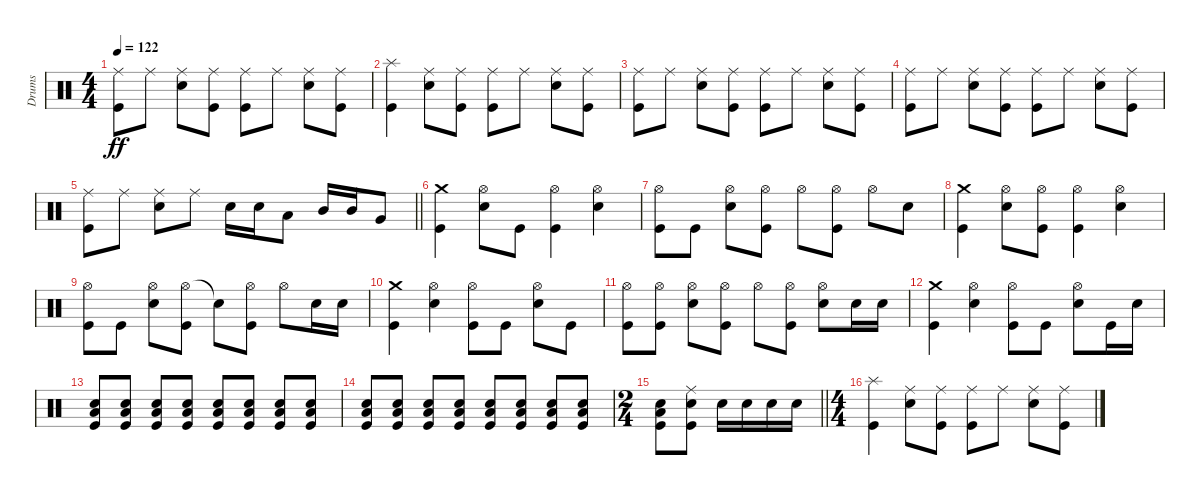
\track ("Drums" "Drums") {instrument percussion}
\staff {score}
\articulation defaults
\ts (4 4)
\tempo 122
\clef neutral
\ks c
("Ride (middle)" "Kick (hit)").8{dy ff} "Ride (middle)".8 ("Ride (middle)" "Snare (hit) 2").8 ("Ride (middle)" "Kick (hit)").8 ("Ride (middle)" "Kick (hit)").8 "Ride (middle)".8 ("Ride (middle)" "Snare (hit) 2").8 ("Ride (middle)" "Kick (hit)").8 |
("Splash (hit)" "Kick (hit)").4 ("Ride (middle)" "Snare (hit) 2").8 ("Ride (middle)" "Kick (hit)").8 ("Ride (middle)" "Kick (hit)").8 "Ride (middle)".8 ("Ride (middle)" "Snare (hit) 2").8 ("Ride (middle)" "Kick (hit)").8 |
("Ride (middle)" "Kick (hit)").8 "Ride (middle)".8 ("Ride (middle)" "Snare (hit) 2").8 ("Ride (middle)" "Kick (hit)").8 ("Ride (middle)" "Kick (hit)").8 "Ride (middle)".8 ("Ride (middle)" "Snare (hit) 2").8 ("Ride (middle)" "Kick (hit)").8 |
("Ride (middle)" "Kick (hit)").8 "Ride (middle)".8 ("Ride (middle)" "Snare (hit) 2").8 ("Ride (middle)" "Kick (hit)").8 ("Ride (middle)" "Kick (hit)").8 "Ride (middle)".8 ("Ride (middle)" "Snare (hit) 2").8 ("Ride (middle)" "Kick (hit)").8 |
\barLineRight lightlight
("Ride (middle)" "Kick (hit)").8 "Ride (middle)".8 ("Ride (middle)" "Snare (hit) 2").8 "Ride (middle)".8 "Snare (hit) 2".16 "Snare (hit) 2".16 "Low Tom (hit)".8 "Mid Tom (hit)".16 "Mid Tom (hit)".16 "Very Low Tom (hit)".8 |
("Crash medium (hit)" "Kick (hit)").4 ("Hi-Hat (open)" "Snare (hit) 2").8 "Kick (hit)".8 ("Hi-Hat (open)" "Kick (hit)").4 ("Hi-Hat (open)" "Snare (hit) 2").4 |
("Hi-Hat (open)" "Kick (hit)").8 "Kick (hit)".8 ("Hi-Hat (open)" "Snare (hit) 2").8 ("Hi-Hat (open)" "Kick (hit)").8 "Hi-Hat (open)".8 ("Hi-Hat (open)" "Kick (hit)").8 "Hi-Hat (open)".8 "Snare (hit) 2".8 |
("Crash medium (hit)" "Kick (hit)").4 ("Hi-Hat (open)" "Snare (hit) 2").8 ("Hi-Hat (open)" "Kick (hit)").8 ("Hi-Hat (open)" "Kick (hit)").4 ("Hi-Hat (open)" "Snare (hit) 2").4 |
("Hi-Hat (open)" "Kick (hit)").8 "Kick (hit)".8 ("Hi-Hat (open)" "Snare (hit) 2").8 ("Hi-Hat (open)" "Kick (hit)").8 "Snare (hit)"{t}.8 ("Hi-Hat (open)" "Kick (hit)").8 "Hi-Hat (open)".8 "Snare (hit) 2".16 "Snare (hit) 2".16 |
("Crash medium (hit)" "Kick (hit)").4 ("Hi-Hat (open)" "Snare (hit) 2").4 ("Hi-Hat (open)" "Kick (hit)").8 "Kick (hit)".8 ("Hi-Hat (open)" "Snare (hit) 2").8 "Kick (hit)".8 |
("Hi-Hat (open)" "Kick (hit)").8 ("Hi-Hat (open)" "Kick (hit)").8 ("Hi-Hat (open)" "Snare (hit) 2").8 ("Hi-Hat (open)" "Kick (hit)").8 "Hi-Hat (open)".8 ("Hi-Hat (open)" "Kick (hit)").8 ("Hi-Hat (open)" "Snare (hit) 2").8 "Snare (hit) 2".16 "Snare (hit) 2".16 |
("Crash medium (hit)" "Kick (hit)").4 ("Hi-Hat (open)" "Snare (hit) 2").4 ("Hi-Hat (open)" "Kick (hit)").8 "Kick (hit)".8 ("Hi-Hat (open)" "Snare (hit) 2").8 "Kick (hit)".16 "Snare (hit) 2".16 |
("Snare (hit) 2" "Low Floor Tom (hit)" "Kick (hit)").8{volume 8} ("Snare (hit) 2" "Low Floor Tom (hit)" "Kick (hit)").8{volume 13} ("Snare (hit) 2" "Low Floor Tom (hit)" "Kick (hit)").8 ("Snare (hit) 2" "Low Floor Tom (hit)" "Kick (hit)").8 ("Snare (hit) 2" "Low Floor Tom (hit)" "Kick (hit)").8 ("Snare (hit) 2" "Low Floor Tom (hit)" "Kick (hit)").8 ("Snare (hit) 2" "Low Floor Tom (hit)" "Kick (hit)").8 ("Snare (hit) 2" "Low Floor Tom (hit)" "Kick (hit)").8 |
("Snare (hit) 2" "Low Floor Tom (hit)" "Kick (hit)").8 ("Snare (hit) 2" "Low Floor Tom (hit)" "Kick (hit)").8 ("Snare (hit) 2" "Low Floor Tom (hit)" "Kick (hit)").8 ("Snare (hit) 2" "Low Floor Tom (hit)" "Kick (hit)").8 ("Snare (hit) 2" "Low Floor Tom (hit)" "Kick (hit)").8 ("Snare (hit) 2" "Low Floor Tom (hit)" "Kick (hit)").8 ("Snare (hit) 2" "Low Floor Tom (hit)" "Kick (hit)").8 ("Snare (hit) 2" "Low Floor Tom (hit)" "Kick (hit)").8 |
\ts (2 4)
\barLineRight lightlight
("Snare (hit) 2" "Low Floor Tom (hit)" "Kick (hit)").8 ("Snare (hit) 2" "Ride (middle)" "Kick (hit)").8 "Snare (hit) 2".16 "Snare (hit) 2".16 "Snare (hit) 2".16 "Snare (hit) 2".16 |
\ts (4 4)
("Splash (hit)" "Kick (hit)").4{volume 14} ("Ride (middle)" "Snare (hit) 2").8 ("Ride (middle)" "Kick (hit)").8 ("Ride (middle)" "Kick (hit)").8 "Ride (middle)".8 ("Ride (middle)" "Snare (hit) 2").8 ("Ride (middle)" "Kick (hit)").8
